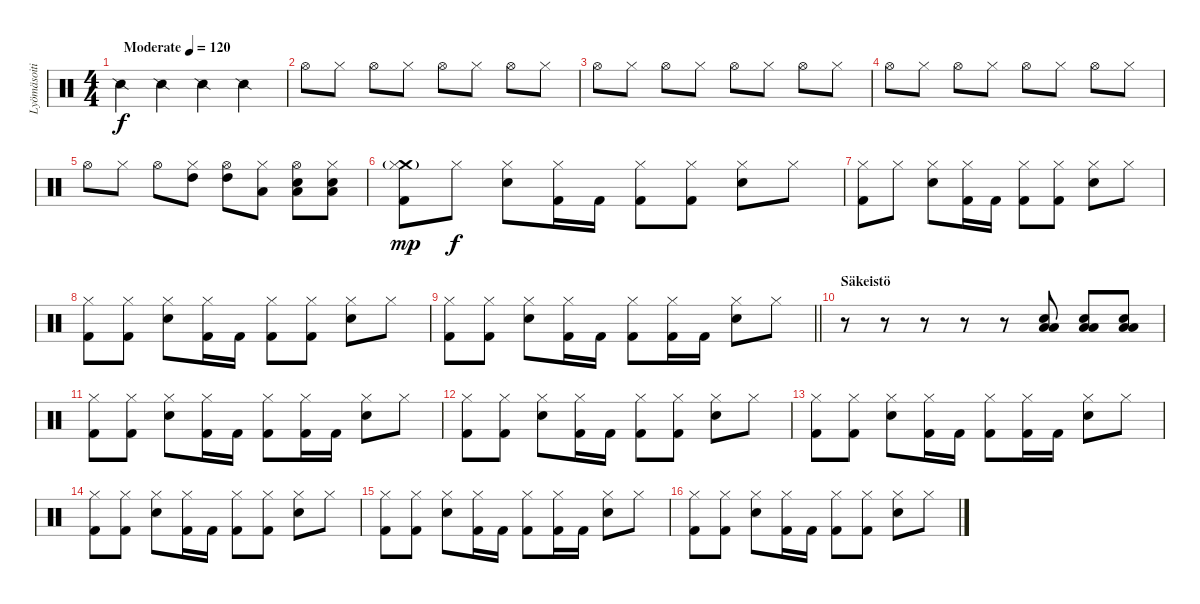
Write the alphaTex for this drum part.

\track ("Lyömäsoitin" "Lyömäsoiti") {instrument percussion}
\staff {score}
\articulation defaults
\ts (4 4)
\tempo (120 "Moderate")
\clef neutral
\ks c "Snare (side stick) 2".4{dy f} "Snare (side stick) 2".4 "Snare (side stick) 2".4 "Snare (side stick) 2".4
|
"Hi-Hat (open)".8 "Hi-Hat (closed)".8 "Hi-Hat (open)".8 "Hi-Hat (closed)".8 "Hi-Hat (open)".8 "Hi-Hat (closed)".8 "Hi-Hat (open)".8 "Hi-Hat (closed)".8 |
"Hi-Hat (open)".8 "Hi-Hat (closed)".8 "Hi-Hat (open)".8 "Hi-Hat (closed)".8 "Hi-Hat (open)".8 "Hi-Hat (closed)".8 "Hi-Hat (open)".8 "Hi-Hat (closed)".8 |
"Hi-Hat (open)".8 "Hi-Hat (closed)".8 "Hi-Hat (open)".8 "Hi-Hat (closed)".8 "Hi-Hat (open)".8 "Hi-Hat (closed)".8 "Hi-Hat (open)".8 "Hi-Hat (closed)".8 |
"Hi-Hat (open)".8 "Hi-Hat (closed)".8 "Hi-Hat (open)".8 ("Hi-Hat (closed)" "High Tom (hit)").8 ("Hi-Hat (open)" "High Tom (hit)").8 ("Hi-Hat (closed)" "Low Tom (hit)").8 ("Hi-Hat (open)" "Low Tom (hit)" "Snare (hit) 2").8 ("Hi-Hat (closed)" "Low Floor Tom (hit)" "Snare (hit) 2").8 |
("Crash medium (hit)"{g} "Kick (hit) 2" "Hi-Hat (closed)").8{dy mp} "Hi-Hat (closed)".8{dy f} ("Snare (hit) 2" "Hi-Hat (closed)").8 ("Kick (hit) 2" "Hi-Hat (closed)").16 "Kick (hit) 2".16 ("Kick (hit) 2" "Hi-Hat (closed)").8 ("Kick (hit) 2" "Hi-Hat (closed)").8 ("Snare (hit) 2" "Hi-Hat (closed)").8 "Hi-Hat (closed)".8 |
("Kick (hit) 2" "Hi-Hat (closed)").8 "Hi-Hat (closed)".8 ("Snare (hit) 2" "Hi-Hat (closed)").8 ("Kick (hit) 2" "Hi-Hat (closed)").16 "Kick (hit) 2".16 ("Kick (hit) 2" "Hi-Hat (closed)").8 ("Kick (hit) 2" "Hi-Hat (closed)").8 ("Snare (hit) 2" "Hi-Hat (closed)").8 "Hi-Hat (closed)".8 |
("Kick (hit) 2" "Hi-Hat (closed)").8 ("Kick (hit) 2" "Hi-Hat (closed)").8 ("Snare (hit) 2" "Hi-Hat (closed)").8 ("Kick (hit) 2" "Hi-Hat (closed)").16 "Kick (hit) 2".16 ("Kick (hit) 2" "Hi-Hat (closed)").8 ("Kick (hit) 2" "Hi-Hat (closed)").8 ("Snare (hit) 2" "Hi-Hat (closed)").8 "Hi-Hat (closed)".8 |
\barLineRight lightlight
("Kick (hit) 2" "Hi-Hat (closed)").8 ("Kick (hit) 2" "Hi-Hat (closed)").8 ("Snare (hit) 2" "Hi-Hat (closed)").8 ("Kick (hit) 2" "Hi-Hat (closed)").16 "Kick (hit) 2".16 ("Kick (hit) 2" "Hi-Hat (closed)").8 ("Kick (hit) 2" "Hi-Hat (closed)").16 "Kick (hit) 2".16 ("Snare (hit) 2" "Hi-Hat (closed)").8 "Hi-Hat (closed)".8 |
\section ("" "Säkeistö")
r.8 r.8 r.8 r.8 r.8 ("Low Tom (hit)" "Low Floor Tom (hit)" "Snare (hit) 2").8 ("Low Tom (hit)" "Low Floor Tom (hit)" "Snare (hit) 2").8 ("Low Tom (hit)" "Low Floor Tom (hit)" "Snare (hit) 2").8 |
("Kick (hit) 2" "Hi-Hat (closed)").8 ("Kick (hit) 2" "Hi-Hat (closed)").8 ("Snare (hit) 2" "Hi-Hat (closed)").8 ("Kick (hit) 2" "Hi-Hat (closed)").16 "Kick (hit) 2".16 ("Kick (hit) 2" "Hi-Hat (closed)").8 ("Kick (hit) 2" "Hi-Hat (closed)").16 "Kick (hit) 2".16 ("Snare (hit) 2" "Hi-Hat (closed)").8 "Hi-Hat (closed)".8 |
("Kick (hit) 2" "Hi-Hat (closed)").8 ("Kick (hit) 2" "Hi-Hat (closed)").8 ("Snare (hit) 2" "Hi-Hat (closed)").8 ("Kick (hit) 2" "Hi-Hat (closed)").16 "Kick (hit) 2".16 ("Kick (hit) 2" "Hi-Hat (closed)").8 ("Kick (hit) 2" "Hi-Hat (closed)").8 ("Snare (hit) 2" "Hi-Hat (closed)").8 "Hi-Hat (closed)".8 |
("Kick (hit) 2" "Hi-Hat (closed)").8 ("Kick (hit) 2" "Hi-Hat (closed)").8 ("Snare (hit) 2" "Hi-Hat (closed)").8 ("Kick (hit) 2" "Hi-Hat (closed)").16 "Kick (hit) 2".16 ("Kick (hit) 2" "Hi-Hat (closed)").8 ("Kick (hit) 2" "Hi-Hat (closed)").16 "Kick (hit) 2".16 ("Snare (hit) 2" "Hi-Hat (closed)").8 "Hi-Hat (closed)".8 |
("Kick (hit) 2" "Hi-Hat (closed)").8 ("Kick (hit) 2" "Hi-Hat (closed)").8 ("Snare (hit) 2" "Hi-Hat (closed)").8 ("Kick (hit) 2" "Hi-Hat (closed)").16 "Kick (hit) 2".16 ("Kick (hit) 2" "Hi-Hat (closed)").8 ("Kick (hit) 2" "Hi-Hat (closed)").8 ("Snare (hit) 2" "Hi-Hat (closed)").8 "Hi-Hat (closed)".8 |
("Kick (hit) 2" "Hi-Hat (closed)").8 ("Kick (hit) 2" "Hi-Hat (closed)").8 ("Snare (hit) 2" "Hi-Hat (closed)").8 ("Kick (hit) 2" "Hi-Hat (closed)").16 "Kick (hit) 2".16 ("Kick (hit) 2" "Hi-Hat (closed)").8 ("Kick (hit) 2" "Hi-Hat (closed)").16 "Kick (hit) 2".16 ("Snare (hit) 2" "Hi-Hat (closed)").8 "Hi-Hat (closed)".8 |
("Kick (hit) 2" "Hi-Hat (closed)").8 ("Kick (hit) 2" "Hi-Hat (closed)").8 ("Snare (hit) 2" "Hi-Hat (closed)").8 ("Kick (hit) 2" "Hi-Hat (closed)").16 "Kick (hit) 2".16 ("Kick (hit) 2" "Hi-Hat (closed)").8 ("Kick (hit) 2" "Hi-Hat (closed)").8 ("Snare (hit) 2" "Hi-Hat (closed)").8 "Hi-Hat (closed)".8
